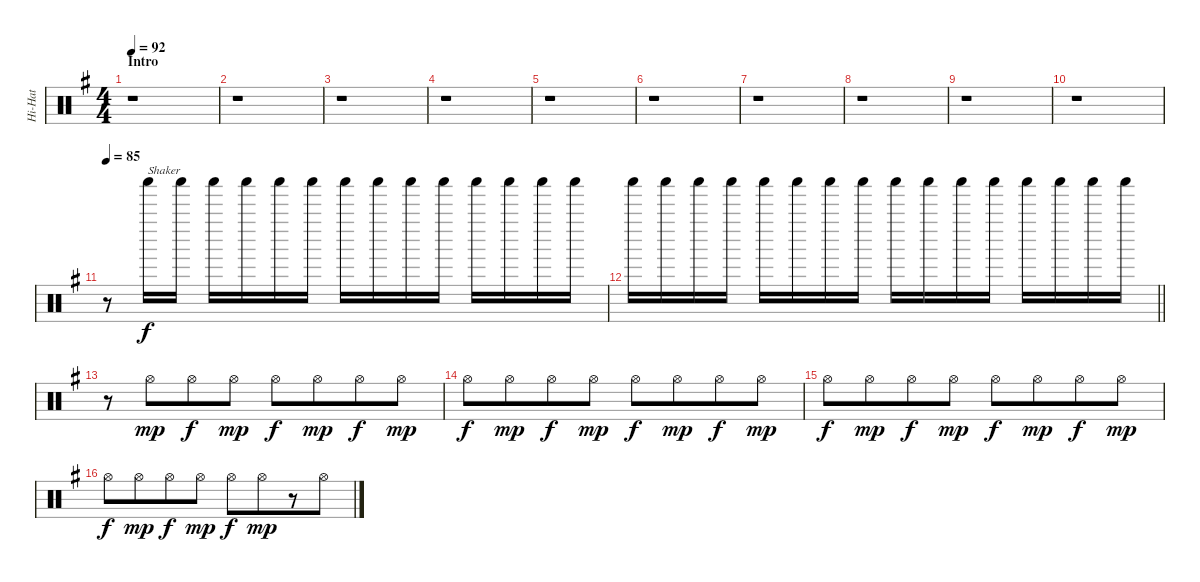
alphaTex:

\track ("Hi-Hat" "Hi-Hat") {instrument percussion}
\staff {score}
\articulation defaults
\ts (4 4)
\section ("" "Intro")
\tempo 92
\clef neutral
\ks g
r.1{dy f} |
r.1 |
r.1 |
r.1 |
r.1 |
r.1 |
r.1 |
r.1 |
r.1 |
r.1 |
\tempo 85
r.8 "Shaker (hit)".16{txt "Shaker" volume 4} "Shaker (hit)".16 "Shaker (hit)".16 "Shaker (hit)".16 "Shaker (hit)".16 "Shaker (hit)".16 "Shaker (hit)".16 "Shaker (hit)".16 "Shaker (hit)".16 "Shaker (hit)".16 "Shaker (hit)".16 "Shaker (hit)".16 "Shaker (hit)".16 "Shaker (hit)".16 |
\barLineRight lightlight "Shaker (hit)".16 "Shaker (hit)".16 "Shaker (hit)".16 "Shaker (hit)".16 "Shaker (hit)".16 "Shaker (hit)".16 "Shaker (hit)".16 "Shaker (hit)".16 "Shaker (hit)".16 "Shaker (hit)".16 "Shaker (hit)".16 "Shaker (hit)".16 "Shaker (hit)".16 "Shaker (hit)".16 "Shaker (hit)".16 "Shaker (hit)".16
|
r.8{volume 7 balance 11} "Hi-Hat (open)".8{dy mp beam merge} "Hi-Hat (open)".8{dy f} "Hi-Hat (open)".8{dy mp} "Hi-Hat (open)".8{dy f} "Hi-Hat (open)".8{dy mp beam merge} "Hi-Hat (open)".8{dy f} "Hi-Hat (open)".8{dy mp} |
"Hi-Hat (open)".8{dy f} "Hi-Hat (open)".8{dy mp beam merge} "Hi-Hat (open)".8{dy f} "Hi-Hat (open)".8{dy mp} "Hi-Hat (open)".8{dy f} "Hi-Hat (open)".8{dy mp beam merge} "Hi-Hat (open)".8{dy f} "Hi-Hat (open)".8{dy mp} |
"Hi-Hat (open)".8{dy f} "Hi-Hat (open)".8{dy mp beam merge} "Hi-Hat (open)".8{dy f} "Hi-Hat (open)".8{dy mp} "Hi-Hat (open)".8{dy f} "Hi-Hat (open)".8{dy mp beam merge} "Hi-Hat (open)".8{dy f} "Hi-Hat (open)".8{dy mp} |
"Hi-Hat (open)".8{dy f} "Hi-Hat (open)".8{dy mp beam merge} "Hi-Hat (open)".8{dy f} "Hi-Hat (open)".8{dy mp} "Hi-Hat (open)".8{dy f} "Hi-Hat (open)".8{dy mp beam merge} r.8 "Hi-Hat (open)".8
